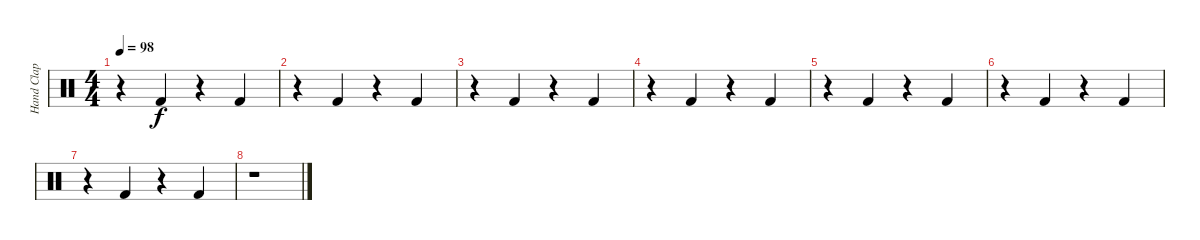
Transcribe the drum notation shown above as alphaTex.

\track ("Hand Clap" "Hand Clap") {instrument percussion}
\staff {score}
\articulation defaults
\ts (4 4)
\tempo 98
\clef neutral
\ks c
r.4{dy f} "Kick (hit) 2".4 r.4 "Kick (hit) 2".4 |
r.4 "Kick (hit) 2".4 r.4 "Kick (hit) 2".4 |
r.4 "Kick (hit) 2".4 r.4 "Kick (hit) 2".4 |
r.4 "Kick (hit) 2".4 r.4 "Kick (hit) 2".4 |
r.4 "Kick (hit) 2".4 r.4 "Kick (hit) 2".4 |
r.4 "Kick (hit) 2".4 r.4 "Kick (hit) 2".4 |
r.4 "Kick (hit) 2".4 r.4 "Kick (hit) 2".4 |
r.1
